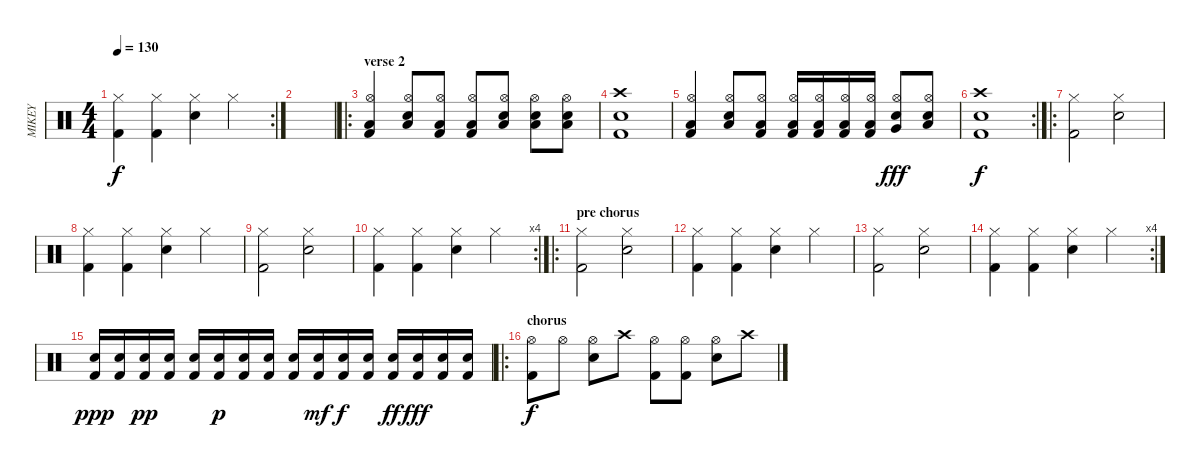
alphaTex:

\track ("MIKEY" "MIKEY") {instrument percussion}
\staff {score}
\articulation defaults
\rc 2
\ts (4 4)
\tempo 130
\clef neutral
\ks c
("Hi-Hat (closed)" "Kick (hit) 2").4{dy f} ("Hi-Hat (closed)" "Kick (hit) 2").4 ("Hi-Hat (closed)" "Electric Snare (hit)").4 "Hi-Hat (closed)".4 |
|
\ro
\section ("" "verse 2")
("Hi-Hat (open)" "Low Floor Tom (hit)" "Kick (hit) 2").4 ("Hi-Hat (open)" "Low Floor Tom (hit)" "Electric Snare (hit)").8 ("Hi-Hat (open)" "Low Floor Tom (hit)" "Kick (hit) 2").8 ("Hi-Hat (open)" "Low Floor Tom (hit)" "Kick (hit) 2").8 ("Hi-Hat (open)" "Low Floor Tom (hit)" "Electric Snare (hit)").8 ("Hi-Hat (open)" "Low Floor Tom (hit)" "Electric Snare (hit)").8 ("Hi-Hat (open)" "Low Floor Tom (hit)" "Electric Snare (hit)").8 |
("Kick (hit) 2" "Crash high (hit)" "Electric Snare (hit)").1 |
("Hi-Hat (open)" "Low Floor Tom (hit)" "Kick (hit) 2").4 ("Hi-Hat (open)" "Low Floor Tom (hit)" "Electric Snare (hit)").8 ("Hi-Hat (open)" "Low Floor Tom (hit)" "Kick (hit) 2").8 ("Hi-Hat (open)" "Low Floor Tom (hit)" "Kick (hit) 2").16 ("Hi-Hat (open)" "Low Floor Tom (hit)" "Kick (hit) 2").16 ("Hi-Hat (open)" "Low Floor Tom (hit)" "Kick (hit) 2").16 ("Hi-Hat (open)" "Low Floor Tom (hit)" "Kick (hit) 2").16 ("Hi-Hat (open)" "Very Low Tom (hit)" "Electric Snare (hit)").8{dy fff} ("Hi-Hat (open)" "Low Tom (hit)" "Electric Snare (hit)").8 |
\rc 2
("Kick (hit) 2" "Crash high (hit)" "Electric Snare (hit)").1{dy f} |
\ro
("Hi-Hat (closed)" "Kick (hit) 2").2 ("Hi-Hat (closed)" "Electric Snare (hit)").2 |
("Hi-Hat (closed)" "Kick (hit) 2").4 ("Hi-Hat (closed)" "Kick (hit) 2").4 ("Hi-Hat (closed)" "Electric Snare (hit)").4 "Hi-Hat (closed)".4 |
("Hi-Hat (closed)" "Kick (hit) 2").2 ("Hi-Hat (closed)" "Electric Snare (hit)").2 |
\rc 4
("Hi-Hat (closed)" "Kick (hit) 2").4 ("Hi-Hat (closed)" "Kick (hit) 2").4 ("Hi-Hat (closed)" "Electric Snare (hit)").4 "Hi-Hat (closed)".4 |
\ro
\section ("" "pre chorus")
("Hi-Hat (closed)" "Kick (hit) 2").2 ("Hi-Hat (closed)" "Electric Snare (hit)").2 |
("Hi-Hat (closed)" "Kick (hit) 2").4 ("Hi-Hat (closed)" "Kick (hit) 2").4 ("Hi-Hat (closed)" "Electric Snare (hit)").4 "Hi-Hat (closed)".4 |
("Hi-Hat (closed)" "Kick (hit) 2").2 ("Hi-Hat (closed)" "Electric Snare (hit)").2 |
\rc 4
("Hi-Hat (closed)" "Kick (hit) 2").4 ("Hi-Hat (closed)" "Kick (hit) 2").4 ("Hi-Hat (closed)" "Electric Snare (hit)").4 "Hi-Hat (closed)".4 |
("Kick (hit) 2" "Electric Snare (hit)").16{dy ppp} ("Kick (hit) 2" "Electric Snare (hit)").16 ("Kick (hit) 2" "Electric Snare (hit)").16{dy pp} ("Kick (hit) 2" "Electric Snare (hit)").16 ("Kick (hit) 2" "Electric Snare (hit)").16 ("Kick (hit) 2" "Electric Snare (hit)").16{dy p} ("Kick (hit) 2" "Electric Snare (hit)").16 ("Kick (hit) 2" "Electric Snare (hit)").16 ("Kick (hit) 2" "Electric Snare (hit)").16 ("Kick (hit) 2" "Electric Snare (hit)").16{dy mf} ("Kick (hit) 2" "Electric Snare (hit)").16{dy f} ("Kick (hit) 2" "Electric Snare (hit)").16 ("Kick (hit) 2" "Electric Snare (hit)").16{dy ff} ("Kick (hit) 2" "Electric Snare (hit)").16{dy fff} ("Kick (hit) 2" "Electric Snare (hit)").16 ("Kick (hit) 2" "Electric Snare (hit)").16 |
\ro
\section ("" "chorus")
("Kick (hit) 2" "Hi-Hat (open)").8{dy f} "Hi-Hat (open)".8 ("Electric Snare (hit)" "Hi-Hat (open)").8 "Crash high (hit)".8 ("Kick (hit) 2" "Hi-Hat (open)").8 ("Kick (hit) 2" "Hi-Hat (open)").8 ("Electric Snare (hit)" "Hi-Hat (open)").8 "Crash high (hit)".8
